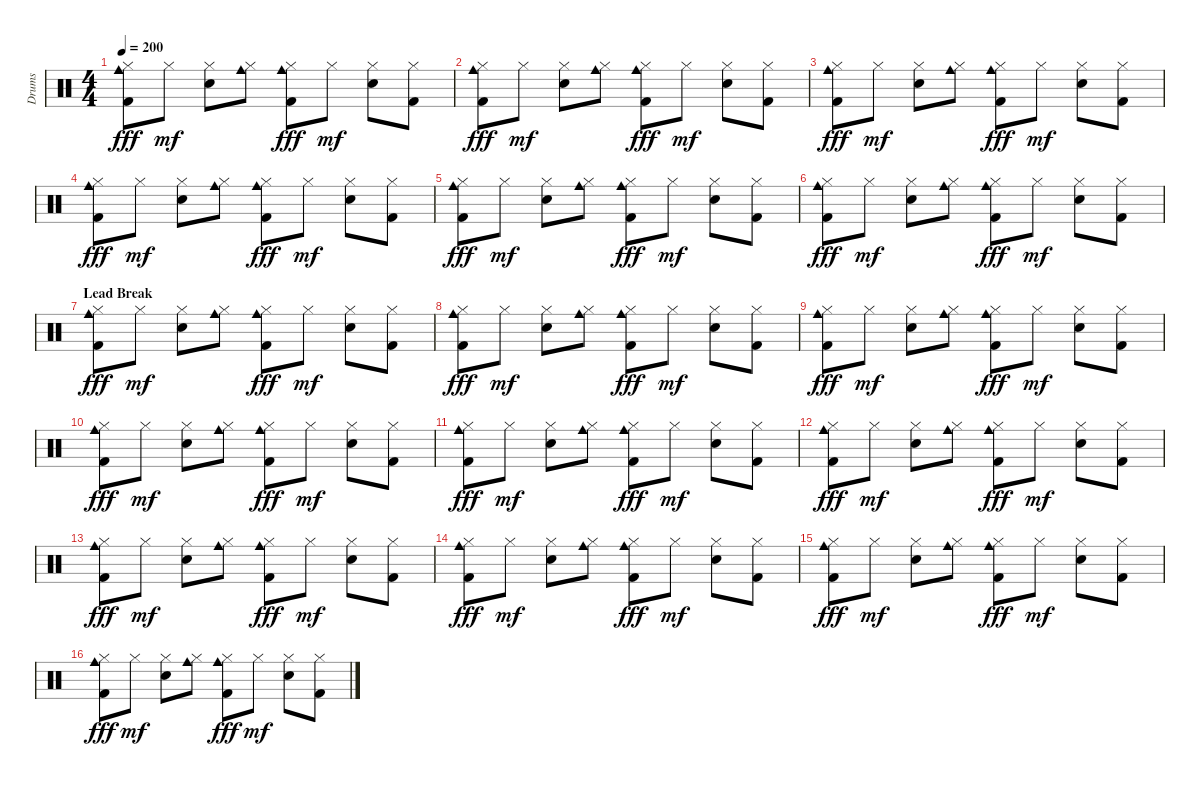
\track ("Drums" "Drums") {instrument percussion}
\staff {score}
\articulation defaults
\ts (4 4)
\tempo 200
\clef neutral
\ks c
("Cowbell medium (hit)" "Hi-Hat (closed)" "Kick (hit) 2").8{dy fff} "Hi-Hat (closed)".8{dy mf} ("Hi-Hat (closed)" "Electric Snare (hit)").8 ("Cowbell medium (hit)" "Hi-Hat (closed)").8 ("Cowbell medium (hit)" "Hi-Hat (closed)" "Kick (hit) 2").8{dy fff} "Hi-Hat (closed)".8{dy mf} ("Hi-Hat (closed)" "Electric Snare (hit)").8 ("Hi-Hat (closed)" "Kick (hit) 2").8 |
("Cowbell medium (hit)" "Hi-Hat (closed)" "Kick (hit) 2").8{dy fff} "Hi-Hat (closed)".8{dy mf} ("Hi-Hat (closed)" "Electric Snare (hit)").8 ("Cowbell medium (hit)" "Hi-Hat (closed)").8 ("Cowbell medium (hit)" "Hi-Hat (closed)" "Kick (hit) 2").8{dy fff} "Hi-Hat (closed)".8{dy mf} ("Hi-Hat (closed)" "Electric Snare (hit)").8 ("Hi-Hat (closed)" "Kick (hit) 2").8 |
("Cowbell medium (hit)" "Hi-Hat (closed)" "Kick (hit) 2").8{dy fff} "Hi-Hat (closed)".8{dy mf} ("Hi-Hat (closed)" "Electric Snare (hit)").8 ("Cowbell medium (hit)" "Hi-Hat (closed)").8 ("Cowbell medium (hit)" "Hi-Hat (closed)" "Kick (hit) 2").8{dy fff} "Hi-Hat (closed)".8{dy mf} ("Hi-Hat (closed)" "Electric Snare (hit)").8 ("Hi-Hat (closed)" "Kick (hit) 2").8 |
("Cowbell medium (hit)" "Hi-Hat (closed)" "Kick (hit) 2").8{dy fff} "Hi-Hat (closed)".8{dy mf} ("Hi-Hat (closed)" "Electric Snare (hit)").8 ("Cowbell medium (hit)" "Hi-Hat (closed)").8 ("Cowbell medium (hit)" "Hi-Hat (closed)" "Kick (hit) 2").8{dy fff} "Hi-Hat (closed)".8{dy mf} ("Hi-Hat (closed)" "Electric Snare (hit)").8 ("Hi-Hat (closed)" "Kick (hit) 2").8 |
("Cowbell medium (hit)" "Hi-Hat (closed)" "Kick (hit) 2").8{dy fff} "Hi-Hat (closed)".8{dy mf} ("Hi-Hat (closed)" "Electric Snare (hit)").8 ("Cowbell medium (hit)" "Hi-Hat (closed)").8 ("Cowbell medium (hit)" "Hi-Hat (closed)" "Kick (hit) 2").8{dy fff} "Hi-Hat (closed)".8{dy mf} ("Hi-Hat (closed)" "Electric Snare (hit)").8 ("Hi-Hat (closed)" "Kick (hit) 2").8 |
("Cowbell medium (hit)" "Hi-Hat (closed)" "Kick (hit) 2").8{dy fff} "Hi-Hat (closed)".8{dy mf} ("Hi-Hat (closed)" "Electric Snare (hit)").8 ("Cowbell medium (hit)" "Hi-Hat (closed)").8 ("Cowbell medium (hit)" "Hi-Hat (closed)" "Kick (hit) 2").8{dy fff} "Hi-Hat (closed)".8{dy mf} ("Hi-Hat (closed)" "Electric Snare (hit)").8 ("Hi-Hat (closed)" "Kick (hit) 2").8 |
\section ("" "Lead Break")
("Cowbell medium (hit)" "Hi-Hat (closed)" "Kick (hit) 2").8{dy fff} "Hi-Hat (closed)".8{dy mf} ("Hi-Hat (closed)" "Electric Snare (hit)").8 ("Cowbell medium (hit)" "Hi-Hat (closed)").8 ("Cowbell medium (hit)" "Hi-Hat (closed)" "Kick (hit) 2").8{dy fff} "Hi-Hat (closed)".8{dy mf} ("Hi-Hat (closed)" "Electric Snare (hit)").8 ("Hi-Hat (closed)" "Kick (hit) 2").8 |
("Cowbell medium (hit)" "Hi-Hat (closed)" "Kick (hit) 2").8{dy fff} "Hi-Hat (closed)".8{dy mf} ("Hi-Hat (closed)" "Electric Snare (hit)").8 ("Cowbell medium (hit)" "Hi-Hat (closed)").8 ("Cowbell medium (hit)" "Hi-Hat (closed)" "Kick (hit) 2").8{dy fff} "Hi-Hat (closed)".8{dy mf} ("Hi-Hat (closed)" "Electric Snare (hit)").8 ("Hi-Hat (closed)" "Kick (hit) 2").8 |
("Cowbell medium (hit)" "Hi-Hat (closed)" "Kick (hit) 2").8{dy fff} "Hi-Hat (closed)".8{dy mf} ("Hi-Hat (closed)" "Electric Snare (hit)").8 ("Cowbell medium (hit)" "Hi-Hat (closed)").8 ("Cowbell medium (hit)" "Hi-Hat (closed)" "Kick (hit) 2").8{dy fff} "Hi-Hat (closed)".8{dy mf} ("Hi-Hat (closed)" "Electric Snare (hit)").8 ("Hi-Hat (closed)" "Kick (hit) 2").8 |
("Cowbell medium (hit)" "Hi-Hat (closed)" "Kick (hit) 2").8{dy fff} "Hi-Hat (closed)".8{dy mf} ("Hi-Hat (closed)" "Electric Snare (hit)").8 ("Cowbell medium (hit)" "Hi-Hat (closed)").8 ("Cowbell medium (hit)" "Hi-Hat (closed)" "Kick (hit) 2").8{dy fff} "Hi-Hat (closed)".8{dy mf} ("Hi-Hat (closed)" "Electric Snare (hit)").8 ("Hi-Hat (closed)" "Kick (hit) 2").8 |
("Cowbell medium (hit)" "Hi-Hat (closed)" "Kick (hit) 2").8{dy fff} "Hi-Hat (closed)".8{dy mf} ("Hi-Hat (closed)" "Electric Snare (hit)").8 ("Cowbell medium (hit)" "Hi-Hat (closed)").8 ("Cowbell medium (hit)" "Hi-Hat (closed)" "Kick (hit) 2").8{dy fff} "Hi-Hat (closed)".8{dy mf} ("Hi-Hat (closed)" "Electric Snare (hit)").8 ("Hi-Hat (closed)" "Kick (hit) 2").8 |
("Cowbell medium (hit)" "Hi-Hat (closed)" "Kick (hit) 2").8{dy fff} "Hi-Hat (closed)".8{dy mf} ("Hi-Hat (closed)" "Electric Snare (hit)").8 ("Cowbell medium (hit)" "Hi-Hat (closed)").8 ("Cowbell medium (hit)" "Hi-Hat (closed)" "Kick (hit) 2").8{dy fff} "Hi-Hat (closed)".8{dy mf} ("Hi-Hat (closed)" "Electric Snare (hit)").8 ("Hi-Hat (closed)" "Kick (hit) 2").8 |
("Cowbell medium (hit)" "Hi-Hat (closed)" "Kick (hit) 2").8{dy fff} "Hi-Hat (closed)".8{dy mf} ("Hi-Hat (closed)" "Electric Snare (hit)").8 ("Cowbell medium (hit)" "Hi-Hat (closed)").8 ("Cowbell medium (hit)" "Hi-Hat (closed)" "Kick (hit) 2").8{dy fff} "Hi-Hat (closed)".8{dy mf} ("Hi-Hat (closed)" "Electric Snare (hit)").8 ("Hi-Hat (closed)" "Kick (hit) 2").8 |
("Cowbell medium (hit)" "Hi-Hat (closed)" "Kick (hit) 2").8{dy fff} "Hi-Hat (closed)".8{dy mf} ("Hi-Hat (closed)" "Electric Snare (hit)").8 ("Cowbell medium (hit)" "Hi-Hat (closed)").8 ("Cowbell medium (hit)" "Hi-Hat (closed)" "Kick (hit) 2").8{dy fff} "Hi-Hat (closed)".8{dy mf} ("Hi-Hat (closed)" "Electric Snare (hit)").8 ("Hi-Hat (closed)" "Kick (hit) 2").8 |
("Cowbell medium (hit)" "Hi-Hat (closed)" "Kick (hit) 2").8{dy fff} "Hi-Hat (closed)".8{dy mf} ("Hi-Hat (closed)" "Electric Snare (hit)").8 ("Cowbell medium (hit)" "Hi-Hat (closed)").8 ("Cowbell medium (hit)" "Hi-Hat (closed)" "Kick (hit) 2").8{dy fff} "Hi-Hat (closed)".8{dy mf} ("Hi-Hat (closed)" "Electric Snare (hit)").8 ("Hi-Hat (closed)" "Kick (hit) 2").8 |
("Cowbell medium (hit)" "Hi-Hat (closed)" "Kick (hit) 2").8{dy fff} "Hi-Hat (closed)".8{dy mf} ("Hi-Hat (closed)" "Electric Snare (hit)").8 ("Cowbell medium (hit)" "Hi-Hat (closed)").8 ("Cowbell medium (hit)" "Hi-Hat (closed)" "Kick (hit) 2").8{dy fff} "Hi-Hat (closed)".8{dy mf} ("Hi-Hat (closed)" "Electric Snare (hit)").8 ("Hi-Hat (closed)" "Kick (hit) 2").8
